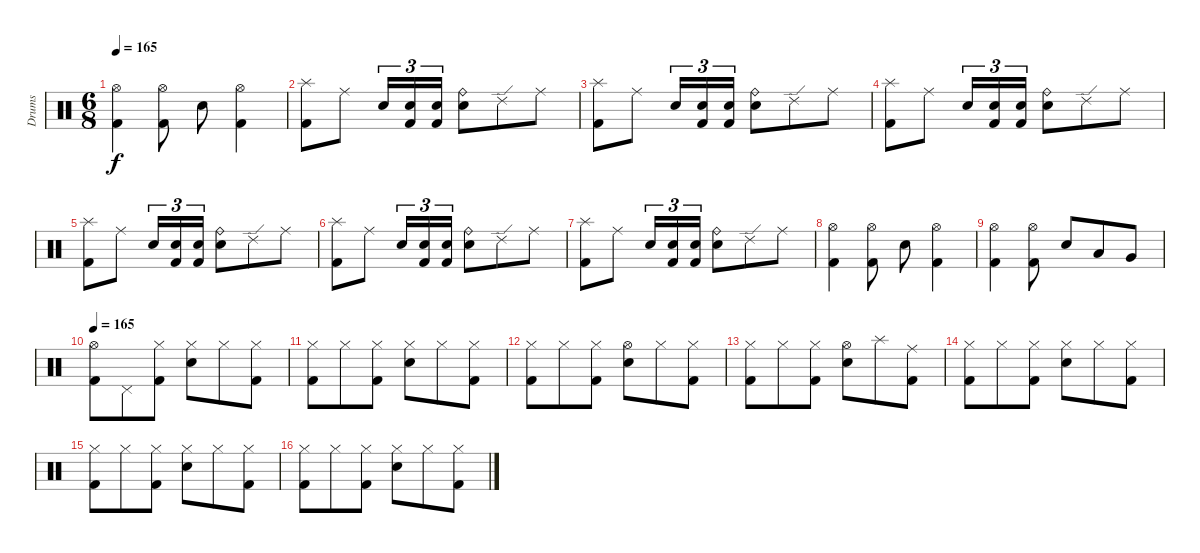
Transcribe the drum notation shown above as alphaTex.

\track ("Drums" "Drums") {instrument percussion}
\staff {score}
\articulation defaults
\ts (6 8)
\tempo 165
\clef neutral
\ks c
("Hi-Hat (open)" "Kick (hit) 2").4{dy f} ("Hi-Hat (open)" "Kick (hit) 2").8 "Electric Snare (hit)".8 ("Hi-Hat (open)" "Kick (hit) 2").4 |
("Splash (hit)" "Kick (hit) 2").8 "Ride (middle)".8 "Electric Snare (hit)".16{tu (3 2)} ("Electric Snare (hit)" "Kick (hit) 2").16{tu (3 2)} ("Electric Snare (hit)" "Kick (hit) 2").16{tu (3 2)} ("Ride (bell)" "Electric Snare (hit)").8 "Ride (edge) 2".8 "Ride (middle)".8 |
("Splash (hit)" "Kick (hit) 2").8 "Ride (middle)".8 "Electric Snare (hit)".16{tu (3 2)} ("Electric Snare (hit)" "Kick (hit) 2").16{tu (3 2)} ("Electric Snare (hit)" "Kick (hit) 2").16{tu (3 2)} ("Ride (bell)" "Electric Snare (hit)").8 "Ride (edge) 2".8 "Ride (middle)".8 |
("Splash (hit)" "Kick (hit) 2").8 "Ride (middle)".8 "Electric Snare (hit)".16{tu (3 2)} ("Electric Snare (hit)" "Kick (hit) 2").16{tu (3 2)} ("Electric Snare (hit)" "Kick (hit) 2").16{tu (3 2)} ("Ride (bell)" "Electric Snare (hit)").8 "Ride (edge) 2".8 "Ride (middle)".8 |
("Splash (hit)" "Kick (hit) 2").8 "Ride (middle)".8 "Electric Snare (hit)".16{tu (3 2)} ("Electric Snare (hit)" "Kick (hit) 2").16{tu (3 2)} ("Electric Snare (hit)" "Kick (hit) 2").16{tu (3 2)} ("Ride (bell)" "Electric Snare (hit)").8 "Ride (edge) 2".8 "Ride (middle)".8 |
("Splash (hit)" "Kick (hit) 2").8 "Ride (middle)".8 "Electric Snare (hit)".16{tu (3 2)} ("Electric Snare (hit)" "Kick (hit) 2").16{tu (3 2)} ("Electric Snare (hit)" "Kick (hit) 2").16{tu (3 2)} ("Ride (bell)" "Electric Snare (hit)").8 "Ride (edge) 2".8 "Ride (middle)".8 |
("Splash (hit)" "Kick (hit) 2").8 "Ride (middle)".8 "Electric Snare (hit)".16{tu (3 2)} ("Electric Snare (hit)" "Kick (hit) 2").16{tu (3 2)} ("Electric Snare (hit)" "Kick (hit) 2").16{tu (3 2)} ("Ride (bell)" "Electric Snare (hit)").8 "Ride (edge) 2".8 "Ride (middle)".8 |
("Hi-Hat (open)" "Kick (hit) 2").4 ("Hi-Hat (open)" "Kick (hit) 2").8 "Electric Snare (hit)".8 ("Hi-Hat (open)" "Kick (hit) 2").4 |
("Hi-Hat (open)" "Kick (hit) 2").4 ("Hi-Hat (open)" "Kick (hit) 2").8 "Electric Snare (hit)".8 "Low Tom (hit)".8 "Very Low Tom (hit)".8 |
\tempo 165
("Hi-Hat (open)" "Kick (hit) 2").8 "Pedal Hi-Hat (hit)".8 ("Hi-Hat (closed)" "Kick (hit) 2").8 ("Hi-Hat (closed)" "Electric Snare (hit)").8 "Hi-Hat (closed)".8 ("Hi-Hat (closed)" "Kick (hit) 2").8 |
("Hi-Hat (closed)" "Kick (hit) 2").8 "Hi-Hat (closed)".8 ("Hi-Hat (closed)" "Kick (hit) 2").8 ("Hi-Hat (closed)" "Electric Snare (hit)").8 "Hi-Hat (closed)".8 ("Hi-Hat (closed)" "Kick (hit) 2").8 |
("Hi-Hat (closed)" "Kick (hit) 2").8 "Hi-Hat (closed)".8 ("Hi-Hat (closed)" "Kick (hit) 2").8 ("Hi-Hat (open)" "Electric Snare (hit)").8 "Hi-Hat (closed)".8 ("Hi-Hat (closed)" "Kick (hit) 2").8 |
("Hi-Hat (closed)" "Kick (hit) 2").8 "Hi-Hat (closed)".8 ("Hi-Hat (closed)" "Kick (hit) 2").8 ("Hi-Hat (open)" "Electric Snare (hit)").8 "Splash (hit)".8 ("Ride (middle)" "Kick (hit) 2").8 |
("Hi-Hat (closed)" "Kick (hit) 2").8 "Hi-Hat (closed)".8 ("Hi-Hat (closed)" "Kick (hit) 2").8 ("Hi-Hat (closed)" "Electric Snare (hit)").8 "Hi-Hat (closed)".8 ("Hi-Hat (closed)" "Kick (hit) 2").8 |
("Hi-Hat (closed)" "Kick (hit) 2").8 "Hi-Hat (closed)".8 ("Hi-Hat (closed)" "Kick (hit) 2").8 ("Hi-Hat (closed)" "Electric Snare (hit)").8 "Hi-Hat (closed)".8 ("Hi-Hat (closed)" "Kick (hit) 2").8 |
("Hi-Hat (closed)" "Kick (hit) 2").8 "Hi-Hat (closed)".8 ("Hi-Hat (closed)" "Kick (hit) 2").8 ("Hi-Hat (closed)" "Electric Snare (hit)").8 "Hi-Hat (closed)".8 ("Hi-Hat (closed)" "Kick (hit) 2").8
